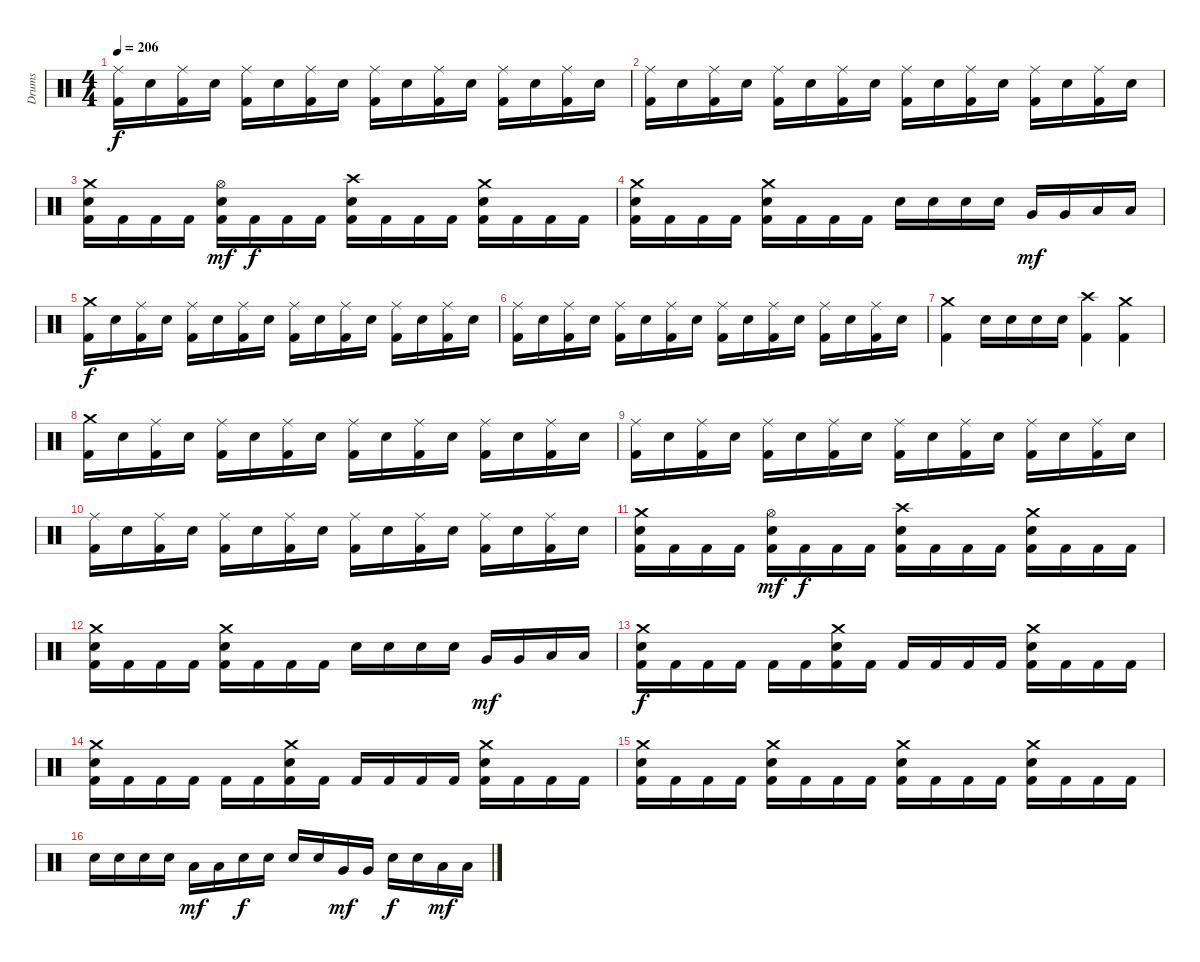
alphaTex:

\track ("Drums" "Drums") {instrument percussion}
\staff {score}
\articulation defaults
\ts (4 4)
\tempo 206
\clef neutral
\ks c
("Ride (middle)" "Kick (hit) 2").16{dy f} "Snare (hit) 2".16 ("Ride (middle)" "Kick (hit) 2").16 "Snare (hit) 2".16 ("Ride (middle)" "Kick (hit) 2").16 "Snare (hit) 2".16 ("Ride (middle)" "Kick (hit) 2").16 "Snare (hit) 2".16 ("Ride (middle)" "Kick (hit) 2").16 "Snare (hit) 2".16 ("Ride (middle)" "Kick (hit) 2").16 "Snare (hit) 2".16 ("Ride (middle)" "Kick (hit) 2").16 "Snare (hit) 2".16 ("Ride (middle)" "Kick (hit) 2").16 "Snare (hit) 2".16 |
("Ride (middle)" "Kick (hit) 2").16 "Snare (hit) 2".16 ("Ride (middle)" "Kick (hit) 2").16 "Snare (hit) 2".16 ("Ride (middle)" "Kick (hit) 2").16 "Snare (hit) 2".16 ("Ride (middle)" "Kick (hit) 2").16 "Snare (hit) 2".16 ("Ride (middle)" "Kick (hit) 2").16 "Snare (hit) 2".16 ("Ride (middle)" "Kick (hit) 2").16 "Snare (hit) 2".16 ("Ride (middle)" "Kick (hit) 2").16 "Snare (hit) 2".16 ("Ride (middle)" "Kick (hit) 2").16 "Snare (hit) 2".16 |
("Crash medium (hit)" "Snare (hit) 2" "Kick (hit) 2").16 "Kick (hit) 2".16 "Kick (hit) 2".16 "Kick (hit) 2".16 ("Hi-Hat (open)" "Snare (hit) 2" "Kick (hit) 2").16{dy mf} "Kick (hit) 2".16{dy f} "Kick (hit) 2".16 "Kick (hit) 2".16 ("Crash high (hit)" "Snare (hit) 2" "Kick (hit) 2").16 "Kick (hit) 2".16 "Kick (hit) 2".16 "Kick (hit) 2".16 ("Crash medium (hit)" "Snare (hit) 2" "Kick (hit) 2").16 "Kick (hit) 2".16 "Kick (hit) 2".16 "Kick (hit) 2".16 |
("Crash medium (hit)" "Snare (hit) 2" "Kick (hit) 2").16 "Kick (hit) 2".16 "Kick (hit) 2".16 "Kick (hit) 2".16 ("Crash medium (hit)" "Snare (hit) 2" "Kick (hit) 2").16 "Kick (hit) 2".16 "Kick (hit) 2".16 "Kick (hit) 2".16 "Snare (hit) 2".16 "Snare (hit) 2".16 "Snare (hit) 2".16 "Snare (hit) 2".16 "Very Low Tom (hit)".16{dy mf} "Very Low Tom (hit)".16 "Low Floor Tom (hit)".16 "Low Floor Tom (hit)".16 |
("Crash medium (hit)" "Kick (hit) 2").16{dy f} "Snare (hit) 2".16 ("Ride (middle)" "Kick (hit) 2").16 "Snare (hit) 2".16 ("Ride (middle)" "Kick (hit) 2").16 "Snare (hit) 2".16 ("Ride (middle)" "Kick (hit) 2").16 "Snare (hit) 2".16 ("Ride (middle)" "Kick (hit) 2").16 "Snare (hit) 2".16 ("Ride (middle)" "Kick (hit) 2").16 "Snare (hit) 2".16 ("Ride (middle)" "Kick (hit) 2").16 "Snare (hit) 2".16 ("Ride (middle)" "Kick (hit) 2").16 "Snare (hit) 2".16 |
("Ride (middle)" "Kick (hit) 2").16 "Snare (hit) 2".16 ("Ride (middle)" "Kick (hit) 2").16 "Snare (hit) 2".16 ("Ride (middle)" "Kick (hit) 2").16 "Snare (hit) 2".16 ("Ride (middle)" "Kick (hit) 2").16 "Snare (hit) 2".16 ("Ride (middle)" "Kick (hit) 2").16 "Snare (hit) 2".16 ("Ride (middle)" "Kick (hit) 2").16 "Snare (hit) 2".16 ("Ride (middle)" "Kick (hit) 2").16 "Snare (hit) 2".16 ("Ride (middle)" "Kick (hit) 2").16 "Snare (hit) 2".16 |
("Crash medium (hit)" "Kick (hit) 2").4 "Snare (hit) 2".16 "Snare (hit) 2".16 "Snare (hit) 2".16 "Snare (hit) 2".16 ("Crash high (hit)" "Kick (hit) 2").4 ("Crash medium (hit)" "Kick (hit) 2").4 |
("Crash medium (hit)" "Kick (hit) 2").16 "Snare (hit) 2".16 ("Ride (middle)" "Kick (hit) 2").16 "Snare (hit) 2".16 ("Ride (middle)" "Kick (hit) 2").16 "Snare (hit) 2".16 ("Ride (middle)" "Kick (hit) 2").16 "Snare (hit) 2".16 ("Ride (middle)" "Kick (hit) 2").16 "Snare (hit) 2".16 ("Ride (middle)" "Kick (hit) 2").16 "Snare (hit) 2".16 ("Ride (middle)" "Kick (hit) 2").16 "Snare (hit) 2".16 ("Ride (middle)" "Kick (hit) 2").16 "Snare (hit) 2".16 |
("Ride (middle)" "Kick (hit) 2").16 "Snare (hit) 2".16 ("Ride (middle)" "Kick (hit) 2").16 "Snare (hit) 2".16 ("Ride (middle)" "Kick (hit) 2").16 "Snare (hit) 2".16 ("Ride (middle)" "Kick (hit) 2").16 "Snare (hit) 2".16 ("Ride (middle)" "Kick (hit) 2").16 "Snare (hit) 2".16 ("Ride (middle)" "Kick (hit) 2").16 "Snare (hit) 2".16 ("Ride (middle)" "Kick (hit) 2").16 "Snare (hit) 2".16 ("Ride (middle)" "Kick (hit) 2").16 "Snare (hit) 2".16 |
("Ride (middle)" "Kick (hit) 2").16 "Snare (hit) 2".16 ("Ride (middle)" "Kick (hit) 2").16 "Snare (hit) 2".16 ("Ride (middle)" "Kick (hit) 2").16 "Snare (hit) 2".16 ("Ride (middle)" "Kick (hit) 2").16 "Snare (hit) 2".16 ("Ride (middle)" "Kick (hit) 2").16 "Snare (hit) 2".16 ("Ride (middle)" "Kick (hit) 2").16 "Snare (hit) 2".16 ("Ride (middle)" "Kick (hit) 2").16 "Snare (hit) 2".16 ("Ride (middle)" "Kick (hit) 2").16 "Snare (hit) 2".16 |
("Crash medium (hit)" "Snare (hit) 2" "Kick (hit) 2").16 "Kick (hit) 2".16 "Kick (hit) 2".16 "Kick (hit) 2".16 ("Hi-Hat (open)" "Snare (hit) 2" "Kick (hit) 2").16{dy mf} "Kick (hit) 2".16{dy f} "Kick (hit) 2".16 "Kick (hit) 2".16 ("Crash high (hit)" "Snare (hit) 2" "Kick (hit) 2").16 "Kick (hit) 2".16 "Kick (hit) 2".16 "Kick (hit) 2".16 ("Crash medium (hit)" "Snare (hit) 2" "Kick (hit) 2").16 "Kick (hit) 2".16 "Kick (hit) 2".16 "Kick (hit) 2".16 |
("Crash medium (hit)" "Snare (hit) 2" "Kick (hit) 2").16 "Kick (hit) 2".16 "Kick (hit) 2".16 "Kick (hit) 2".16 ("Crash medium (hit)" "Snare (hit) 2" "Kick (hit) 2").16 "Kick (hit) 2".16 "Kick (hit) 2".16 "Kick (hit) 2".16 "Snare (hit) 2".16 "Snare (hit) 2".16 "Snare (hit) 2".16 "Snare (hit) 2".16 "Very Low Tom (hit)".16{dy mf} "Very Low Tom (hit)".16 "Low Floor Tom (hit)".16 "Low Floor Tom (hit)".16 |
("Crash medium (hit)" "Snare (hit) 2" "Kick (hit) 2").16{dy f} "Kick (hit) 2".16 "Kick (hit) 2".16 "Kick (hit) 2".16 "Kick (hit) 2".16 "Kick (hit) 2".16 ("Crash medium (hit)" "Snare (hit) 2" "Kick (hit) 2").16 "Kick (hit) 2".16 "Kick (hit) 2".16 "Kick (hit) 2".16 "Kick (hit) 2".16 "Kick (hit) 2".16 ("Crash medium (hit)" "Snare (hit) 2" "Kick (hit) 2").16 "Kick (hit) 2".16 "Kick (hit) 2".16 "Kick (hit) 2".16 |
("Crash medium (hit)" "Snare (hit) 2" "Kick (hit) 2").16 "Kick (hit) 2".16 "Kick (hit) 2".16 "Kick (hit) 2".16 "Kick (hit) 2".16 "Kick (hit) 2".16 ("Crash medium (hit)" "Snare (hit) 2" "Kick (hit) 2").16 "Kick (hit) 2".16 "Kick (hit) 2".16 "Kick (hit) 2".16 "Kick (hit) 2".16 "Kick (hit) 2".16 ("Crash medium (hit)" "Snare (hit) 2" "Kick (hit) 2").16 "Kick (hit) 2".16 "Kick (hit) 2".16 "Kick (hit) 2".16 |
("Crash medium (hit)" "Snare (hit) 2" "Kick (hit) 2").16 "Kick (hit) 2".16 "Kick (hit) 2".16 "Kick (hit) 2".16 ("Crash medium (hit)" "Snare (hit) 2" "Kick (hit) 2").16 "Kick (hit) 2".16 "Kick (hit) 2".16 "Kick (hit) 2".16 ("Crash medium (hit)" "Snare (hit) 2" "Kick (hit) 2").16 "Kick (hit) 2".16 "Kick (hit) 2".16 "Kick (hit) 2".16 ("Crash medium (hit)" "Snare (hit) 2" "Kick (hit) 2").16 "Kick (hit) 2".16 "Kick (hit) 2".16 "Kick (hit) 2".16 |
"Snare (hit) 2".16 "Snare (hit) 2".16 "Snare (hit) 2".16 "Snare (hit) 2".16 "Low Tom (hit)".16{dy mf} "Low Tom (hit)".16 "Snare (hit) 2".16{dy f} "Snare (hit) 2".16 "Snare (hit) 2".16 "Snare (hit) 2".16 "Very Low Tom (hit)".16{dy mf} "Very Low Tom (hit)".16 "Snare (hit) 2".16{dy f} "Snare (hit) 2".16 "Low Floor Tom (hit)".16{dy mf} "Low Floor Tom (hit)".16
